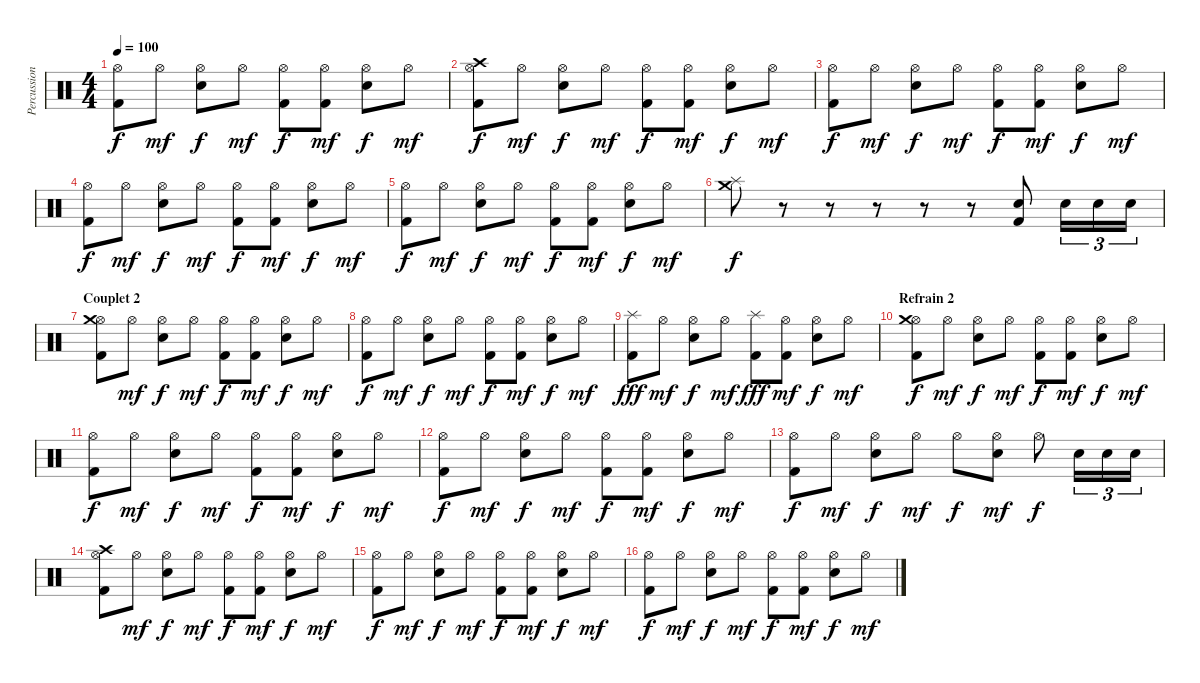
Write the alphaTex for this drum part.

\track ("Percussions" "Percussion") {instrument percussion}
\staff {score}
\articulation defaults
\ts (4 4)
\tempo 100
\clef neutral
\ks c
("Hi-Hat (open)" "Kick (hit) 2").8{dy f} "Hi-Hat (open)".8{dy mf} ("Hi-Hat (open)" "Electric Snare (hit)").8{dy f} "Hi-Hat (open)".8{dy mf} ("Hi-Hat (open)" "Kick (hit) 2").8{dy f} ("Hi-Hat (open)" "Kick (hit) 2").8{dy mf} ("Hi-Hat (open)" "Electric Snare (hit)").8{dy f} "Hi-Hat (open)".8{dy mf} |
("Hi-Hat (open)" "Crash high (hit)" "Kick (hit) 2").8{dy f} "Hi-Hat (open)".8{dy mf} ("Hi-Hat (open)" "Electric Snare (hit)").8{dy f} "Hi-Hat (open)".8{dy mf} ("Hi-Hat (open)" "Kick (hit) 2").8{dy f} ("Hi-Hat (open)" "Kick (hit) 2").8{dy mf} ("Hi-Hat (open)" "Electric Snare (hit)").8{dy f} "Hi-Hat (open)".8{dy mf} |
("Hi-Hat (open)" "Kick (hit) 2").8{dy f} "Hi-Hat (open)".8{dy mf} ("Hi-Hat (open)" "Electric Snare (hit)").8{dy f} "Hi-Hat (open)".8{dy mf} ("Hi-Hat (open)" "Kick (hit) 2").8{dy f} ("Hi-Hat (open)" "Kick (hit) 2").8{dy mf} ("Hi-Hat (open)" "Electric Snare (hit)").8{dy f} "Hi-Hat (open)".8{dy mf} |
("Hi-Hat (open)" "Kick (hit) 2").8{dy f} "Hi-Hat (open)".8{dy mf} ("Hi-Hat (open)" "Electric Snare (hit)").8{dy f} "Hi-Hat (open)".8{dy mf} ("Hi-Hat (open)" "Kick (hit) 2").8{dy f} ("Hi-Hat (open)" "Kick (hit) 2").8{dy mf} ("Hi-Hat (open)" "Electric Snare (hit)").8{dy f} "Hi-Hat (open)".8{dy mf} |
("Hi-Hat (open)" "Kick (hit) 2").8{dy f} "Hi-Hat (open)".8{dy mf} ("Hi-Hat (open)" "Electric Snare (hit)").8{dy f} "Hi-Hat (open)".8{dy mf} ("Hi-Hat (open)" "Kick (hit) 2").8{dy f} ("Hi-Hat (open)" "Kick (hit) 2").8{dy mf} ("Hi-Hat (open)" "Electric Snare (hit)").8{dy f} "Hi-Hat (open)".8{dy mf} |
("Crash medium (hit)" "Splash (hit)").8{dy f} r.8 r.8 r.8 r.8 r.8 ("Electric Snare (hit)" "Kick (hit) 2").8 "Electric Snare (hit)".16{tu (3 2)} "Electric Snare (hit)".16{tu (3 2)} "Electric Snare (hit)".16{tu (3 2)} |
\section ("" "Couplet 2")
("Hi-Hat (open)" "Crash medium (hit)" "Kick (hit) 2").8 "Hi-Hat (open)".8{dy mf} ("Hi-Hat (open)" "Electric Snare (hit)").8{dy f} "Hi-Hat (open)".8{dy mf} ("Hi-Hat (open)" "Kick (hit) 2").8{dy f} ("Hi-Hat (open)" "Kick (hit) 2").8{dy mf} ("Hi-Hat (open)" "Electric Snare (hit)").8{dy f} "Hi-Hat (open)".8{dy mf} |
("Hi-Hat (open)" "Kick (hit) 2").8{dy f} "Hi-Hat (open)".8{dy mf} ("Hi-Hat (open)" "Electric Snare (hit)").8{dy f} "Hi-Hat (open)".8{dy mf} ("Hi-Hat (open)" "Kick (hit) 2").8{dy f} ("Hi-Hat (open)" "Kick (hit) 2").8{dy mf} ("Hi-Hat (open)" "Electric Snare (hit)").8{dy f} "Hi-Hat (open)".8{dy mf} |
("Splash (hit)" "Kick (hit) 2").8{dy fff} "Hi-Hat (open)".8{dy mf} ("Hi-Hat (open)" "Electric Snare (hit)").8{dy f} "Hi-Hat (open)".8{dy mf} ("Splash (hit)" "Kick (hit) 2").8{dy fff} ("Hi-Hat (open)" "Kick (hit) 2").8{dy mf} ("Hi-Hat (open)" "Electric Snare (hit)").8{dy f} "Hi-Hat (open)".8{dy mf} |
\section ("" "Refrain 2")
("Hi-Hat (open)" "Crash medium (hit)" "Kick (hit) 2").8{dy f} "Hi-Hat (open)".8{dy mf} ("Hi-Hat (open)" "Electric Snare (hit)").8{dy f} "Hi-Hat (open)".8{dy mf} ("Hi-Hat (open)" "Kick (hit) 2").8{dy f} ("Hi-Hat (open)" "Kick (hit) 2").8{dy mf} ("Hi-Hat (open)" "Electric Snare (hit)").8{dy f} "Hi-Hat (open)".8{dy mf} |
("Hi-Hat (open)" "Kick (hit) 2").8{dy f} "Hi-Hat (open)".8{dy mf} ("Hi-Hat (open)" "Electric Snare (hit)").8{dy f} "Hi-Hat (open)".8{dy mf} ("Hi-Hat (open)" "Kick (hit) 2").8{dy f} ("Hi-Hat (open)" "Kick (hit) 2").8{dy mf} ("Hi-Hat (open)" "Electric Snare (hit)").8{dy f} "Hi-Hat (open)".8{dy mf} |
("Hi-Hat (open)" "Kick (hit) 2").8{dy f} "Hi-Hat (open)".8{dy mf} ("Hi-Hat (open)" "Electric Snare (hit)").8{dy f} "Hi-Hat (open)".8{dy mf} ("Hi-Hat (open)" "Kick (hit) 2").8{dy f} ("Hi-Hat (open)" "Kick (hit) 2").8{dy mf} ("Hi-Hat (open)" "Electric Snare (hit)").8{dy f} "Hi-Hat (open)".8{dy mf} |
("Hi-Hat (open)" "Kick (hit) 2").8{dy f} "Hi-Hat (open)".8{dy mf} ("Hi-Hat (open)" "Electric Snare (hit)").8{dy f} "Hi-Hat (open)".8{dy mf} "Hi-Hat (open)".8{dy f} ("Hi-Hat (open)" "Electric Snare (hit)").8{dy mf} "Hi-Hat (open)".8{dy f} "Electric Snare (hit)".16{tu (3 2)} "Electric Snare (hit)".16{tu (3 2)} "Electric Snare (hit)".16{tu (3 2)} |
("Hi-Hat (open)" "Crash high (hit)" "Kick (hit) 2").8 "Hi-Hat (open)".8{dy mf} ("Hi-Hat (open)" "Electric Snare (hit)").8{dy f} "Hi-Hat (open)".8{dy mf} ("Hi-Hat (open)" "Kick (hit) 2").8{dy f} ("Hi-Hat (open)" "Kick (hit) 2").8{dy mf} ("Hi-Hat (open)" "Electric Snare (hit)").8{dy f} "Hi-Hat (open)".8{dy mf} |
("Hi-Hat (open)" "Kick (hit) 2").8{dy f} "Hi-Hat (open)".8{dy mf} ("Hi-Hat (open)" "Electric Snare (hit)").8{dy f} "Hi-Hat (open)".8{dy mf} ("Hi-Hat (open)" "Kick (hit) 2").8{dy f} ("Hi-Hat (open)" "Kick (hit) 2").8{dy mf} ("Hi-Hat (open)" "Electric Snare (hit)").8{dy f} "Hi-Hat (open)".8{dy mf} |
("Hi-Hat (open)" "Kick (hit) 2").8{dy f} "Hi-Hat (open)".8{dy mf} ("Hi-Hat (open)" "Electric Snare (hit)").8{dy f} "Hi-Hat (open)".8{dy mf} ("Hi-Hat (open)" "Kick (hit) 2").8{dy f} ("Hi-Hat (open)" "Kick (hit) 2").8{dy mf} ("Hi-Hat (open)" "Electric Snare (hit)").8{dy f} "Hi-Hat (open)".8{dy mf}
